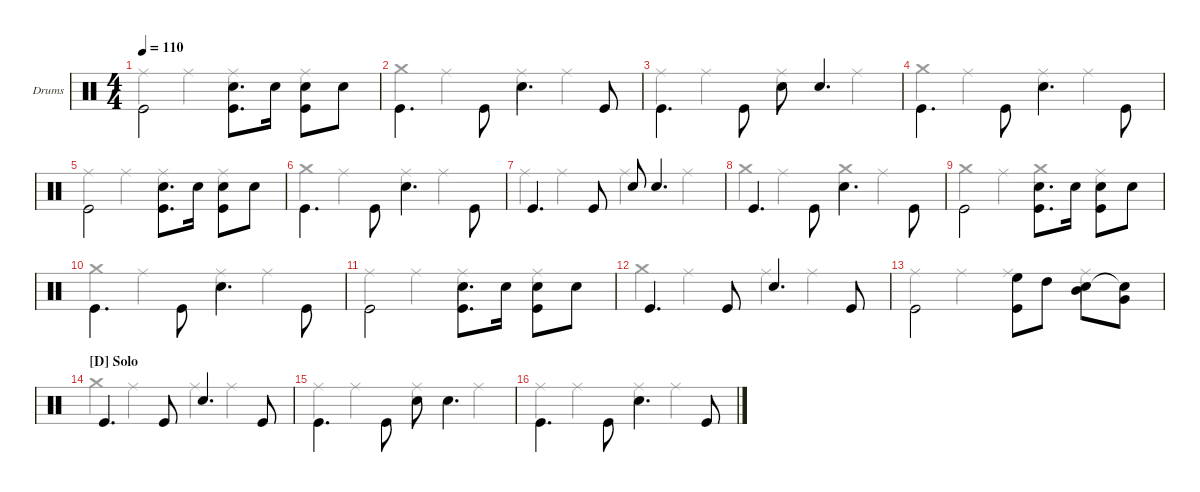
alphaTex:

\hideDynamics
\bracketExtendMode groupsimilarinstruments
\multiBarRest
\firstSystemTrackNameOrientation horizontal
\otherSystemsTrackNameOrientation horizontal
\track ("Drumkit" "Drums") {multiBarRest instrument percussion}
\staff {score}
\articulation defaults
\voice
\ts (4 4)
\tempo 110
\clef neutral
\ks c "Kick (hit)".2{dy f beam invert}
("Kick (hit)" "Snare (hit) 2").8{d beam invert} "Snare (hit) 2".16 ("Kick (hit)" "Snare (hit) 2").8{beam invert} "Snare (hit) 2".8 |
"Kick (hit)".4{d beam invert} "Kick (hit)".8{beam invert} "Snare (hit) 2".4{d beam invert} "Kick (hit)".8 |
"Kick (hit)".4{d beam invert} "Kick (hit)".8 "Snare (hit) 2".8{beam invert} "Snare (hit) 2".4{d} |
"Kick (hit)".4{d beam invert} "Kick (hit)".8{beam invert} "Snare (hit) 2".4{d} "Kick (hit)".8{beam invert} |
"Kick (hit)".2 ("Kick (hit)" "Snare (hit) 2").8{d beam invert} "Snare (hit) 2".16 ("Kick (hit)" "Snare (hit) 2").8{beam invert} "Snare (hit) 2".8 |
"Kick (hit)".4{d beam invert} "Kick (hit)".8{beam invert} "Snare (hit) 2".4{d} "Kick (hit)".8{beam invert} |
"Kick (hit)".4{d} "Kick (hit)".8 "Snare (hit) 2".8 "Snare (hit) 2".4{d} |
"Kick (hit)".4{d} "Kick (hit)".8 "Snare (hit) 2".4{d beam invert} "Kick (hit)".8{beam invert} |
"Kick (hit)".2{beam invert} ("Kick (hit)" "Snare (hit) 2").8{d beam invert} "Snare (hit) 2".16 ("Kick (hit)" "Snare (hit) 2").8{beam invert} "Snare (hit) 2".8 |
"Kick (hit)".4{d beam invert} "Kick (hit)".8 "Snare (hit) 2".4{d beam invert} "Kick (hit)".8{beam invert} |
"Kick (hit)".2{beam invert} ("Kick (hit)" "Snare (hit) 2").8{d beam invert} "Snare (hit) 2".16 ("Kick (hit)" "Snare (hit) 2").8{beam invert} "Snare (hit) 2".8 |
"Kick (hit)".4{d} "Kick (hit)".8 "Snare (hit) 2".4{d} "Kick (hit)".8 |
"Kick (hit)".2{beam invert} ("High Floor Tom (hit)" "Kick (hit)").8{beam invert} "High Tom (hit)".8 ("Mid Tom (hit)" "Snare (hit) 2").8{beam invert} ("Very Low Tom (hit)" "Snare (hit) 2"{t}).8 |
\section ("D" "Solo")
"Kick (hit)".4{d} "Kick (hit)".8 "Snare (hit) 2".4{d} "Kick (hit)".8 |
"Kick (hit)".4{d} "Kick (hit)".8{beam invert} "Snare (hit) 2".8{beam invert} "Snare (hit) 2".4{d beam invert} |
"Kick (hit)".4{d beam invert} "Kick (hit)".8{beam invert} "Snare (hit) 2".4{d beam invert} "Kick (hit)".8
\voice
\clef neutral
\ottava regular
\simile none
\ks c
|
|
|
|
|
|
|
|
|
|
|
|
|
|
|
\voice
\clef neutral
\ottava regular
\simile none
\ks c
|
|
|
|
|
|
|
|
|
|
|
|
|
|
|
\voice
\clef neutral
\ottava regular
\simile none
\ks c "Ride (middle)".4{dy f} "Ride (middle)".4 "Ride (middle)".4 "Ride (middle)".4
|
"Crash medium (hit)".4 "Ride (middle)".4 "Ride (middle)".4 "Ride (middle)".4 |
"Ride (middle)".4 "Ride (middle)".4 "Ride (middle)".4 "Ride (middle)".4 |
"Crash medium (hit)".4 "Ride (middle)".4 "Ride (middle)".4 "Ride (middle)".4 |
"Ride (middle)".4 "Ride (middle)".4 "Ride (middle)".4 "Ride (middle)".4 |
"Crash medium (hit)".4 "Ride (middle)".4 "Ride (middle)".4 "Ride (middle)".4 |
"Ride (middle)".4 "Ride (middle)".4 "Ride (middle)".4 "Ride (middle)".4 |
"Crash medium (hit)".4 "Ride (middle)".4 "Crash medium (hit)".4 "Ride (middle)".4 |
"Crash medium (hit)".4 "Ride (middle)".4 "Crash medium (hit)".4 "Ride (middle)".4 |
"Crash medium (hit)".4 "Ride (middle)".4 "Ride (middle)".4 "Ride (middle)".4 |
"Ride (middle)".4 "Ride (middle)".4 "Ride (middle)".4 "Ride (middle)".4 |
"Crash medium (hit)".4 "Ride (middle)".4 "Ride (middle)".4 "Ride (middle)".4 |
"Ride (middle)".4 "Ride (middle)".4 "Ride (middle)".4 "Ride (middle)".4 |
"Crash medium (hit)".4 "Ride (middle)".4 "Ride (middle)".4 "Ride (middle)".4 |
"Ride (middle)".4 "Ride (middle)".4 "Ride (middle)".4 "Ride (middle)".4 |
"Ride (middle)".4 "Ride (middle)".4 "Ride (middle)".4 "Ride (middle)".4
